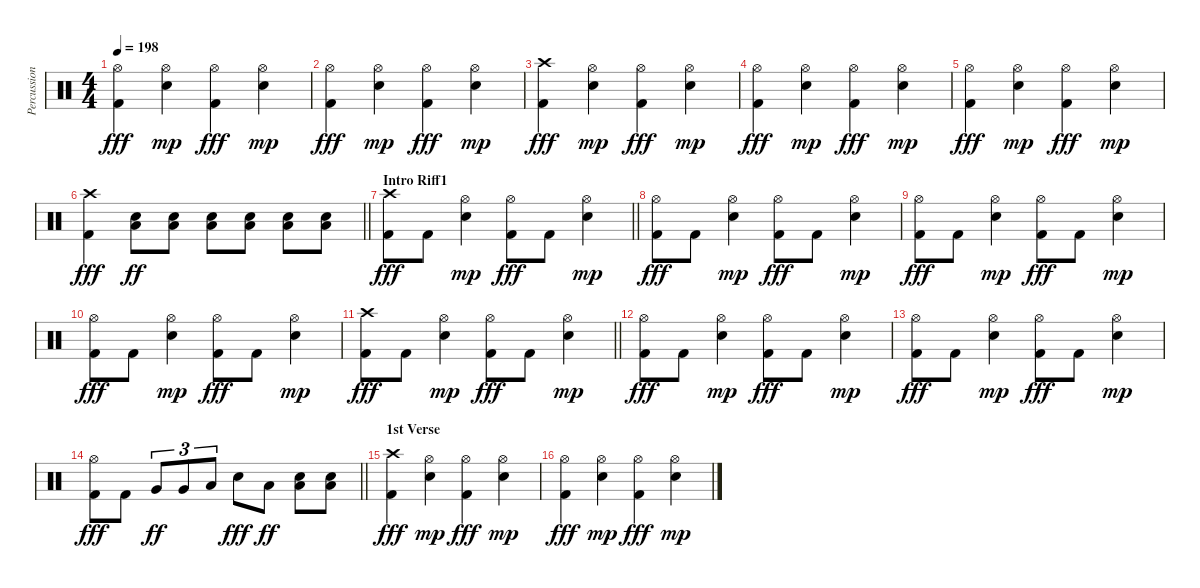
\track ("Percussion" "Percussion") {instrument percussion}
\staff {score}
\articulation defaults
\ts (4 4)
\tempo 198
\clef neutral
\ks c
("Hi-Hat (open)" "Kick (hit) 2").4{dy fff} ("Hi-Hat (open)" "Snare (hit) 2").4{dy mp} ("Hi-Hat (open)" "Kick (hit) 2").4{dy fff} ("Hi-Hat (open)" "Snare (hit) 2").4{dy mp} |
("Hi-Hat (open)" "Kick (hit) 2").4{dy fff} ("Hi-Hat (open)" "Snare (hit) 2").4{dy mp} ("Hi-Hat (open)" "Kick (hit) 2").4{dy fff} ("Hi-Hat (open)" "Snare (hit) 2").4{dy mp} |
("Crash high (hit)" "Kick (hit) 2").4{dy fff} ("Hi-Hat (open)" "Snare (hit) 2").4{dy mp} ("Hi-Hat (open)" "Kick (hit) 2").4{dy fff} ("Hi-Hat (open)" "Snare (hit) 2").4{dy mp} |
("Hi-Hat (open)" "Kick (hit) 2").4{dy fff} ("Hi-Hat (open)" "Snare (hit) 2").4{dy mp} ("Hi-Hat (open)" "Kick (hit) 2").4{dy fff} ("Hi-Hat (open)" "Snare (hit) 2").4{dy mp} |
("Hi-Hat (open)" "Kick (hit) 2").4{dy fff} ("Hi-Hat (open)" "Snare (hit) 2").4{dy mp} ("Hi-Hat (open)" "Kick (hit) 2").4{dy fff} ("Hi-Hat (open)" "Snare (hit) 2").4{dy mp} |
\barLineRight lightlight
("Crash high (hit)" "Kick (hit) 2").4{dy fff} ("Low Floor Tom (hit)" "Snare (hit) 2").8{dy ff} ("Low Floor Tom (hit)" "Snare (hit) 2").8 ("Low Floor Tom (hit)" "Snare (hit) 2").8 ("Low Floor Tom (hit)" "Snare (hit) 2").8 ("Low Floor Tom (hit)" "Snare (hit) 2").8 ("Low Floor Tom (hit)" "Snare (hit) 2").8 |
\section ("" "Intro Riff1")
\barLineRight lightlight
("Crash high (hit)" "Kick (hit) 2").8{dy fff} "Kick (hit) 2".8 ("Hi-Hat (open)" "Snare (hit) 2").4{dy mp} ("Hi-Hat (open)" "Kick (hit) 2").8{dy fff} "Kick (hit) 2".8 ("Hi-Hat (open)" "Snare (hit) 2").4{dy mp} |
("Hi-Hat (open)" "Kick (hit) 2").8{dy fff} "Kick (hit) 2".8 ("Hi-Hat (open)" "Snare (hit) 2").4{dy mp} ("Hi-Hat (open)" "Kick (hit) 2").8{dy fff} "Kick (hit) 2".8 ("Hi-Hat (open)" "Snare (hit) 2").4{dy mp} |
("Hi-Hat (open)" "Kick (hit) 2").8{dy fff} "Kick (hit) 2".8 ("Hi-Hat (open)" "Snare (hit) 2").4{dy mp} ("Hi-Hat (open)" "Kick (hit) 2").8{dy fff} "Kick (hit) 2".8 ("Hi-Hat (open)" "Snare (hit) 2").4{dy mp} |
("Hi-Hat (open)" "Kick (hit) 2").8{dy fff} "Kick (hit) 2".8 ("Hi-Hat (open)" "Snare (hit) 2").4{dy mp} ("Hi-Hat (open)" "Kick (hit) 2").8{dy fff} "Kick (hit) 2".8 ("Hi-Hat (open)" "Snare (hit) 2").4{dy mp} |
\barLineRight lightlight
("Crash high (hit)" "Kick (hit) 2").8{dy fff} "Kick (hit) 2".8 ("Hi-Hat (open)" "Snare (hit) 2").4{dy mp} ("Hi-Hat (open)" "Kick (hit) 2").8{dy fff} "Kick (hit) 2".8 ("Hi-Hat (open)" "Snare (hit) 2").4{dy mp} |
("Hi-Hat (open)" "Kick (hit) 2").8{dy fff} "Kick (hit) 2".8 ("Hi-Hat (open)" "Snare (hit) 2").4{dy mp} ("Hi-Hat (open)" "Kick (hit) 2").8{dy fff} "Kick (hit) 2".8 ("Hi-Hat (open)" "Snare (hit) 2").4{dy mp} |
("Hi-Hat (open)" "Kick (hit) 2").8{dy fff} "Kick (hit) 2".8 ("Hi-Hat (open)" "Snare (hit) 2").4{dy mp} ("Hi-Hat (open)" "Kick (hit) 2").8{dy fff} "Kick (hit) 2".8 ("Hi-Hat (open)" "Snare (hit) 2").4{dy mp} |
\barLineRight lightlight
("Hi-Hat (open)" "Kick (hit) 2").8{dy fff} "Kick (hit) 2".8 "Very Low Tom (hit)".8{tu (3 2) dy ff} "Very Low Tom (hit)".8{tu (3 2)} "Low Tom (hit)".8{tu (3 2)} "Snare (hit) 2".8{dy fff} "Low Tom (hit)".8{dy ff} ("Low Floor Tom (hit)" "Snare (hit) 2").8 ("Low Floor Tom (hit)" "Snare (hit) 2").8 |
\section ("" "1st Verse")
("Crash high (hit)" "Kick (hit) 2").4{dy fff} ("Hi-Hat (open)" "Snare (hit) 2").4{dy mp} ("Hi-Hat (open)" "Kick (hit) 2").4{dy fff} ("Hi-Hat (open)" "Snare (hit) 2").4{dy mp} |
("Hi-Hat (open)" "Kick (hit) 2").4{dy fff} ("Hi-Hat (open)" "Snare (hit) 2").4{dy mp} ("Hi-Hat (open)" "Kick (hit) 2").4{dy fff} ("Hi-Hat (open)" "Snare (hit) 2").4{dy mp}
